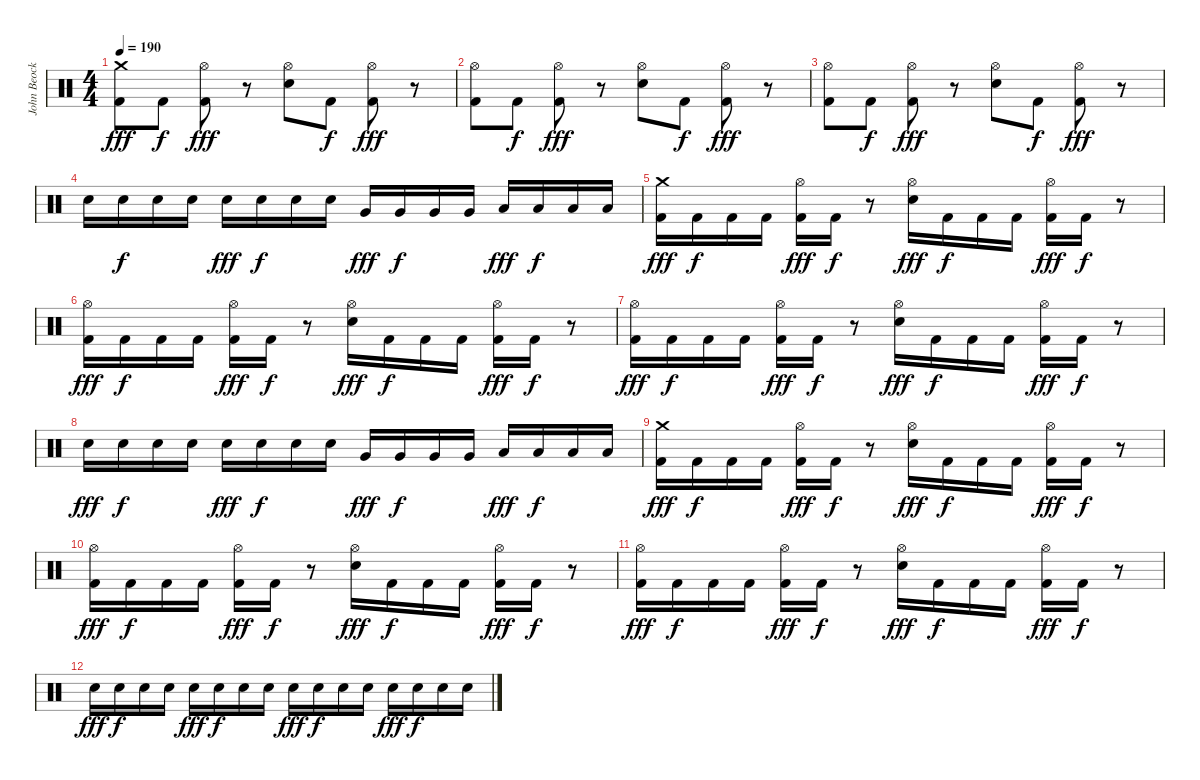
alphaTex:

\track ("John Beocklin (Drums)" "John Beock") {instrument percussion}
\staff {score}
\articulation defaults
\ts (4 4)
\tempo 190
\clef neutral
\ks c
("Crash medium (hit)" "Kick (hit) 2").8{dy fff} "Kick (hit) 2".8{dy f} ("Hi-Hat (open)" "Kick (hit) 2").8{dy fff} r.8 ("Hi-Hat (open)" "Snare (hit) 2").8 "Kick (hit) 2".8{dy f} ("Hi-Hat (open)" "Kick (hit) 2").8{dy fff} r.8 |
("Hi-Hat (open)" "Kick (hit) 2").8 "Kick (hit) 2".8{dy f} ("Hi-Hat (open)" "Kick (hit) 2").8{dy fff} r.8 ("Hi-Hat (open)" "Snare (hit) 2").8 "Kick (hit) 2".8{dy f} ("Hi-Hat (open)" "Kick (hit) 2").8{dy fff} r.8 |
("Hi-Hat (open)" "Kick (hit) 2").8 "Kick (hit) 2".8{dy f} ("Hi-Hat (open)" "Kick (hit) 2").8{dy fff} r.8 ("Hi-Hat (open)" "Snare (hit) 2").8 "Kick (hit) 2".8{dy f} ("Hi-Hat (open)" "Kick (hit) 2").8{dy fff} r.8 |
"Snare (hit) 2".16 "Snare (hit) 2".16{dy f} "Snare (hit) 2".16 "Snare (hit) 2".16 "Snare (hit) 2".16{dy fff} "Snare (hit) 2".16{dy f} "Snare (hit) 2".16 "Snare (hit) 2".16 "Very Low Tom (hit)".16{dy fff} "Very Low Tom (hit)".16{dy f} "Very Low Tom (hit)".16 "Very Low Tom (hit)".16 "Low Floor Tom (hit)".16{dy fff} "Low Floor Tom (hit)".16{dy f} "Low Floor Tom (hit)".16 "Low Floor Tom (hit)".16 |
("Crash medium (hit)" "Kick (hit) 2").16{dy fff} "Kick (hit) 2".16{dy f} "Kick (hit) 2".16 "Kick (hit) 2".16 ("Hi-Hat (open)" "Kick (hit) 2").16{dy fff} "Kick (hit) 2".16{dy f} r.8 ("Hi-Hat (open)" "Snare (hit) 2").16{dy fff} "Kick (hit) 2".16{dy f} "Kick (hit) 2".16 "Kick (hit) 2".16 ("Hi-Hat (open)" "Kick (hit) 2").16{dy fff} "Kick (hit) 2".16{dy f} r.8 |
("Hi-Hat (open)" "Kick (hit) 2").16{dy fff} "Kick (hit) 2".16{dy f} "Kick (hit) 2".16 "Kick (hit) 2".16 ("Hi-Hat (open)" "Kick (hit) 2").16{dy fff} "Kick (hit) 2".16{dy f} r.8 ("Hi-Hat (open)" "Snare (hit) 2").16{dy fff} "Kick (hit) 2".16{dy f} "Kick (hit) 2".16 "Kick (hit) 2".16 ("Hi-Hat (open)" "Kick (hit) 2").16{dy fff} "Kick (hit) 2".16{dy f} r.8 |
("Hi-Hat (open)" "Kick (hit) 2").16{dy fff} "Kick (hit) 2".16{dy f} "Kick (hit) 2".16 "Kick (hit) 2".16 ("Hi-Hat (open)" "Kick (hit) 2").16{dy fff} "Kick (hit) 2".16{dy f} r.8 ("Hi-Hat (open)" "Snare (hit) 2").16{dy fff} "Kick (hit) 2".16{dy f} "Kick (hit) 2".16 "Kick (hit) 2".16 ("Hi-Hat (open)" "Kick (hit) 2").16{dy fff} "Kick (hit) 2".16{dy f} r.8 |
"Snare (hit) 2".16{dy fff} "Snare (hit) 2".16{dy f} "Snare (hit) 2".16 "Snare (hit) 2".16 "Snare (hit) 2".16{dy fff} "Snare (hit) 2".16{dy f} "Snare (hit) 2".16 "Snare (hit) 2".16 "Very Low Tom (hit)".16{dy fff} "Very Low Tom (hit)".16{dy f} "Very Low Tom (hit)".16 "Very Low Tom (hit)".16 "Low Floor Tom (hit)".16{dy fff} "Low Floor Tom (hit)".16{dy f} "Low Floor Tom (hit)".16 "Low Floor Tom (hit)".16 |
("Crash medium (hit)" "Kick (hit) 2").16{dy fff} "Kick (hit) 2".16{dy f} "Kick (hit) 2".16 "Kick (hit) 2".16 ("Hi-Hat (open)" "Kick (hit) 2").16{dy fff} "Kick (hit) 2".16{dy f} r.8 ("Hi-Hat (open)" "Snare (hit) 2").16{dy fff} "Kick (hit) 2".16{dy f} "Kick (hit) 2".16 "Kick (hit) 2".16 ("Hi-Hat (open)" "Kick (hit) 2").16{dy fff} "Kick (hit) 2".16{dy f} r.8 |
("Hi-Hat (open)" "Kick (hit) 2").16{dy fff} "Kick (hit) 2".16{dy f} "Kick (hit) 2".16 "Kick (hit) 2".16 ("Hi-Hat (open)" "Kick (hit) 2").16{dy fff} "Kick (hit) 2".16{dy f} r.8 ("Hi-Hat (open)" "Snare (hit) 2").16{dy fff} "Kick (hit) 2".16{dy f} "Kick (hit) 2".16 "Kick (hit) 2".16 ("Hi-Hat (open)" "Kick (hit) 2").16{dy fff} "Kick (hit) 2".16{dy f} r.8 |
("Hi-Hat (open)" "Kick (hit) 2").16{dy fff} "Kick (hit) 2".16{dy f} "Kick (hit) 2".16 "Kick (hit) 2".16 ("Hi-Hat (open)" "Kick (hit) 2").16{dy fff} "Kick (hit) 2".16{dy f} r.8 ("Hi-Hat (open)" "Snare (hit) 2").16{dy fff} "Kick (hit) 2".16{dy f} "Kick (hit) 2".16 "Kick (hit) 2".16 ("Hi-Hat (open)" "Kick (hit) 2").16{dy fff} "Kick (hit) 2".16{dy f} r.8 |
"Snare (hit) 2".16{dy fff} "Snare (hit) 2".16{dy f} "Snare (hit) 2".16 "Snare (hit) 2".16 "Snare (hit) 2".16{dy fff} "Snare (hit) 2".16{dy f} "Snare (hit) 2".16 "Snare (hit) 2".16 "Snare (hit) 2".16{dy fff} "Snare (hit) 2".16{dy f} "Snare (hit) 2".16 "Snare (hit) 2".16 "Snare (hit) 2".16{dy fff} "Snare (hit) 2".16{dy f} "Snare (hit) 2".16 "Snare (hit) 2".16
